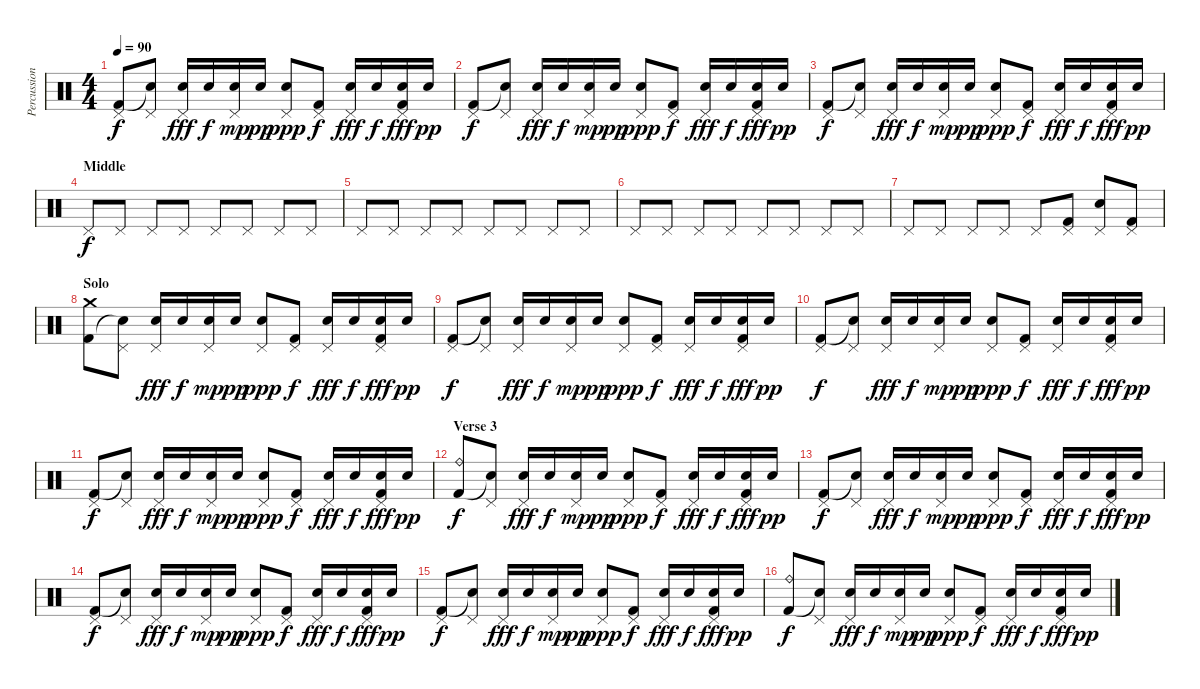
\track ("Percussion" "Percussion") {instrument percussion}
\staff {score}
\articulation defaults
\ts (4 4)
\tempo 90
\clef neutral
\ks c
("Pedal Hi-Hat (hit)" "Kick (hit) 2").8{dy f} ("Pedal Hi-Hat (hit)" "Snare (hit)"{t}).8 ("Pedal Hi-Hat (hit)" "Electric Snare (hit)").16{dy fff} "Electric Snare (hit)".16{dy f} ("Pedal Hi-Hat (hit)" "Electric Snare (hit)").16{dy mp} "Electric Snare (hit)".16{dy pp} ("Pedal Hi-Hat (hit)" "Electric Snare (hit)").8{dy ppp} ("Pedal Hi-Hat (hit)" "Kick (hit) 2").8{dy f} ("Pedal Hi-Hat (hit)" "Electric Snare (hit)").16{dy fff} "Electric Snare (hit)".16{dy f} ("Pedal Hi-Hat (hit)" "Electric Snare (hit)" "Kick (hit) 2").16{dy fff} "Electric Snare (hit)".16{dy pp} |
("Pedal Hi-Hat (hit)" "Kick (hit) 2").8{dy f} ("Pedal Hi-Hat (hit)" "Snare (hit)"{t}).8 ("Pedal Hi-Hat (hit)" "Electric Snare (hit)").16{dy fff} "Electric Snare (hit)".16{dy f} ("Pedal Hi-Hat (hit)" "Electric Snare (hit)").16{dy mp} "Electric Snare (hit)".16{dy pp} ("Pedal Hi-Hat (hit)" "Electric Snare (hit)").8{dy ppp} ("Pedal Hi-Hat (hit)" "Kick (hit) 2").8{dy f} ("Pedal Hi-Hat (hit)" "Electric Snare (hit)").16{dy fff} "Electric Snare (hit)".16{dy f} ("Pedal Hi-Hat (hit)" "Electric Snare (hit)" "Kick (hit) 2").16{dy fff} "Electric Snare (hit)".16{dy pp} |
("Pedal Hi-Hat (hit)" "Kick (hit) 2").8{dy f} ("Pedal Hi-Hat (hit)" "Snare (hit)"{t}).8 ("Pedal Hi-Hat (hit)" "Electric Snare (hit)").16{dy fff} "Electric Snare (hit)".16{dy f} ("Pedal Hi-Hat (hit)" "Electric Snare (hit)").16{dy mp} "Electric Snare (hit)".16{dy pp} ("Pedal Hi-Hat (hit)" "Electric Snare (hit)").8{dy ppp} ("Pedal Hi-Hat (hit)" "Kick (hit) 2").8{dy f} ("Pedal Hi-Hat (hit)" "Electric Snare (hit)").16{dy fff} "Electric Snare (hit)".16{dy f} ("Pedal Hi-Hat (hit)" "Electric Snare (hit)" "Kick (hit) 2").16{dy fff} "Electric Snare (hit)".16{dy pp} |
\section ("" "Middle")
"Pedal Hi-Hat (hit)".8{dy f} "Pedal Hi-Hat (hit)".8 "Pedal Hi-Hat (hit)".8 "Pedal Hi-Hat (hit)".8 "Pedal Hi-Hat (hit)".8 "Pedal Hi-Hat (hit)".8 "Pedal Hi-Hat (hit)".8 "Pedal Hi-Hat (hit)".8 |
"Pedal Hi-Hat (hit)".8 "Pedal Hi-Hat (hit)".8 "Pedal Hi-Hat (hit)".8 "Pedal Hi-Hat (hit)".8 "Pedal Hi-Hat (hit)".8 "Pedal Hi-Hat (hit)".8 "Pedal Hi-Hat (hit)".8 "Pedal Hi-Hat (hit)".8 |
"Pedal Hi-Hat (hit)".8 "Pedal Hi-Hat (hit)".8 "Pedal Hi-Hat (hit)".8 "Pedal Hi-Hat (hit)".8 "Pedal Hi-Hat (hit)".8 "Pedal Hi-Hat (hit)".8 "Pedal Hi-Hat (hit)".8 "Pedal Hi-Hat (hit)".8 |
"Pedal Hi-Hat (hit)".8 "Pedal Hi-Hat (hit)".8 "Pedal Hi-Hat (hit)".8 "Pedal Hi-Hat (hit)".8 "Pedal Hi-Hat (hit)".8 ("Pedal Hi-Hat (hit)" "Kick (hit) 2").8 ("Pedal Hi-Hat (hit)" "Electric Snare (hit)").8 ("Pedal Hi-Hat (hit)" "Kick (hit) 2").8 |
\section ("" "Solo")
("Crash medium (hit)" "Kick (hit) 2").8 ("Pedal Hi-Hat (hit)" "Snare (hit)"{t}).8 ("Pedal Hi-Hat (hit)" "Electric Snare (hit)").16{dy fff} "Electric Snare (hit)".16{dy f} ("Pedal Hi-Hat (hit)" "Electric Snare (hit)").16{dy mp} "Electric Snare (hit)".16{dy pp} ("Pedal Hi-Hat (hit)" "Electric Snare (hit)").8{dy ppp} ("Pedal Hi-Hat (hit)" "Kick (hit) 2").8{dy f} ("Pedal Hi-Hat (hit)" "Electric Snare (hit)").16{dy fff} "Electric Snare (hit)".16{dy f} ("Pedal Hi-Hat (hit)" "Electric Snare (hit)" "Kick (hit) 2").16{dy fff} "Electric Snare (hit)".16{dy pp} |
("Pedal Hi-Hat (hit)" "Kick (hit) 2").8{dy f} ("Pedal Hi-Hat (hit)" "Snare (hit)"{t}).8 ("Pedal Hi-Hat (hit)" "Electric Snare (hit)").16{dy fff} "Electric Snare (hit)".16{dy f} ("Pedal Hi-Hat (hit)" "Electric Snare (hit)").16{dy mp} "Electric Snare (hit)".16{dy pp} ("Pedal Hi-Hat (hit)" "Electric Snare (hit)").8{dy ppp} ("Pedal Hi-Hat (hit)" "Kick (hit) 2").8{dy f} ("Pedal Hi-Hat (hit)" "Electric Snare (hit)").16{dy fff} "Electric Snare (hit)".16{dy f} ("Pedal Hi-Hat (hit)" "Electric Snare (hit)" "Kick (hit) 2").16{dy fff} "Electric Snare (hit)".16{dy pp} |
("Pedal Hi-Hat (hit)" "Kick (hit) 2").8{dy f} ("Pedal Hi-Hat (hit)" "Snare (hit)"{t}).8 ("Pedal Hi-Hat (hit)" "Electric Snare (hit)").16{dy fff} "Electric Snare (hit)".16{dy f} ("Pedal Hi-Hat (hit)" "Electric Snare (hit)").16{dy mp} "Electric Snare (hit)".16{dy pp} ("Pedal Hi-Hat (hit)" "Electric Snare (hit)").8{dy ppp} ("Pedal Hi-Hat (hit)" "Kick (hit) 2").8{dy f} ("Pedal Hi-Hat (hit)" "Electric Snare (hit)").16{dy fff} "Electric Snare (hit)".16{dy f} ("Pedal Hi-Hat (hit)" "Electric Snare (hit)" "Kick (hit) 2").16{dy fff} "Electric Snare (hit)".16{dy pp} |
("Pedal Hi-Hat (hit)" "Kick (hit) 2").8{dy f} ("Pedal Hi-Hat (hit)" "Snare (hit)"{t}).8 ("Pedal Hi-Hat (hit)" "Electric Snare (hit)").16{dy fff} "Electric Snare (hit)".16{dy f} ("Pedal Hi-Hat (hit)" "Electric Snare (hit)").16{dy mp} "Electric Snare (hit)".16{dy pp} ("Pedal Hi-Hat (hit)" "Electric Snare (hit)").8{dy ppp} ("Pedal Hi-Hat (hit)" "Kick (hit) 2").8{dy f} ("Pedal Hi-Hat (hit)" "Electric Snare (hit)").16{dy fff} "Electric Snare (hit)".16{dy f} ("Pedal Hi-Hat (hit)" "Electric Snare (hit)" "Kick (hit) 2").16{dy fff} "Electric Snare (hit)".16{dy pp} |
\section ("" "Verse 3")
("Ride (bell)" "Kick (hit) 2").8{dy f} ("Pedal Hi-Hat (hit)" "Snare (hit)"{t}).8 ("Pedal Hi-Hat (hit)" "Electric Snare (hit)").16{dy fff} "Electric Snare (hit)".16{dy f} ("Pedal Hi-Hat (hit)" "Electric Snare (hit)").16{dy mp} "Electric Snare (hit)".16{dy pp} ("Pedal Hi-Hat (hit)" "Electric Snare (hit)").8{dy ppp} ("Pedal Hi-Hat (hit)" "Kick (hit) 2").8{dy f} ("Pedal Hi-Hat (hit)" "Electric Snare (hit)").16{dy fff} "Electric Snare (hit)".16{dy f} ("Pedal Hi-Hat (hit)" "Electric Snare (hit)" "Kick (hit) 2").16{dy fff} "Electric Snare (hit)".16{dy pp} |
("Pedal Hi-Hat (hit)" "Kick (hit) 2").8{dy f} ("Pedal Hi-Hat (hit)" "Snare (hit)"{t}).8 ("Pedal Hi-Hat (hit)" "Electric Snare (hit)").16{dy fff} "Electric Snare (hit)".16{dy f} ("Pedal Hi-Hat (hit)" "Electric Snare (hit)").16{dy mp} "Electric Snare (hit)".16{dy pp} ("Pedal Hi-Hat (hit)" "Electric Snare (hit)").8{dy ppp} ("Pedal Hi-Hat (hit)" "Kick (hit) 2").8{dy f} ("Pedal Hi-Hat (hit)" "Electric Snare (hit)").16{dy fff} "Electric Snare (hit)".16{dy f} ("Pedal Hi-Hat (hit)" "Electric Snare (hit)" "Kick (hit) 2").16{dy fff} "Electric Snare (hit)".16{dy pp} |
("Pedal Hi-Hat (hit)" "Kick (hit) 2").8{dy f} ("Pedal Hi-Hat (hit)" "Snare (hit)"{t}).8 ("Pedal Hi-Hat (hit)" "Electric Snare (hit)").16{dy fff} "Electric Snare (hit)".16{dy f} ("Pedal Hi-Hat (hit)" "Electric Snare (hit)").16{dy mp} "Electric Snare (hit)".16{dy pp} ("Pedal Hi-Hat (hit)" "Electric Snare (hit)").8{dy ppp} ("Pedal Hi-Hat (hit)" "Kick (hit) 2").8{dy f} ("Pedal Hi-Hat (hit)" "Electric Snare (hit)").16{dy fff} "Electric Snare (hit)".16{dy f} ("Pedal Hi-Hat (hit)" "Electric Snare (hit)" "Kick (hit) 2").16{dy fff} "Electric Snare (hit)".16{dy pp} |
("Pedal Hi-Hat (hit)" "Kick (hit) 2").8{dy f} ("Pedal Hi-Hat (hit)" "Snare (hit)"{t}).8 ("Pedal Hi-Hat (hit)" "Electric Snare (hit)").16{dy fff} "Electric Snare (hit)".16{dy f} ("Pedal Hi-Hat (hit)" "Electric Snare (hit)").16{dy mp} "Electric Snare (hit)".16{dy pp} ("Pedal Hi-Hat (hit)" "Electric Snare (hit)").8{dy ppp} ("Pedal Hi-Hat (hit)" "Kick (hit) 2").8{dy f} ("Pedal Hi-Hat (hit)" "Electric Snare (hit)").16{dy fff} "Electric Snare (hit)".16{dy f} ("Pedal Hi-Hat (hit)" "Electric Snare (hit)" "Kick (hit) 2").16{dy fff} "Electric Snare (hit)".16{dy pp} |
("Ride (bell)" "Kick (hit) 2").8{dy f} ("Pedal Hi-Hat (hit)" "Snare (hit)"{t}).8 ("Pedal Hi-Hat (hit)" "Electric Snare (hit)").16{dy fff} "Electric Snare (hit)".16{dy f} ("Pedal Hi-Hat (hit)" "Electric Snare (hit)").16{dy mp} "Electric Snare (hit)".16{dy pp} ("Pedal Hi-Hat (hit)" "Electric Snare (hit)").8{dy ppp} ("Pedal Hi-Hat (hit)" "Kick (hit) 2").8{dy f} ("Pedal Hi-Hat (hit)" "Electric Snare (hit)").16{dy fff} "Electric Snare (hit)".16{dy f} ("Pedal Hi-Hat (hit)" "Electric Snare (hit)" "Kick (hit) 2").16{dy fff} "Electric Snare (hit)".16{dy pp}
